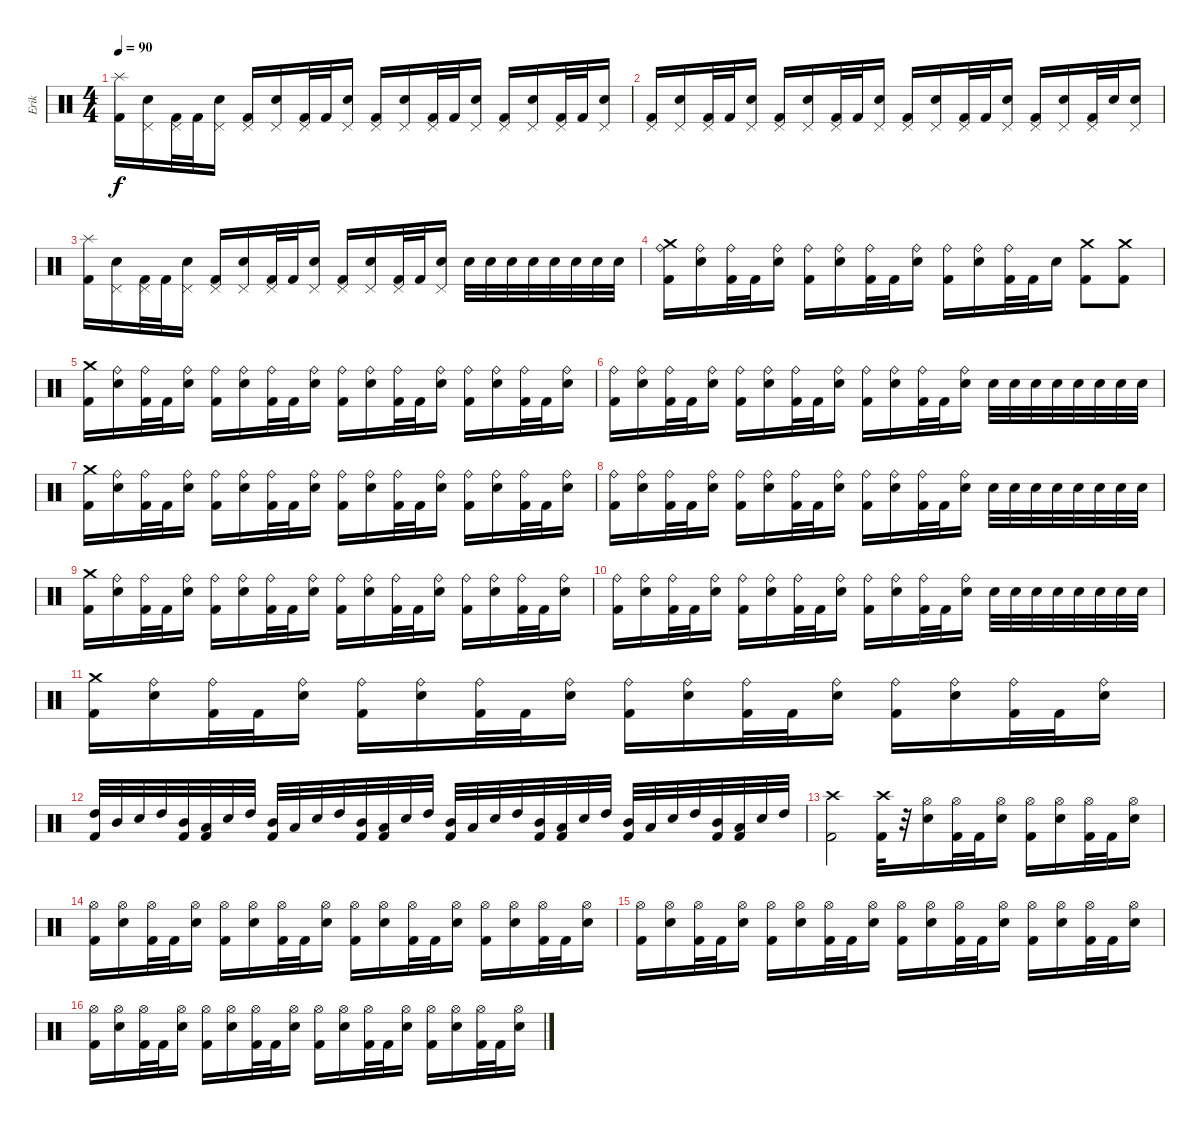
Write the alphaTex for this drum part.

\track ("Erik" "Erik") {instrument percussion}
\staff {score}
\articulation defaults
\ts (4 4)
\tempo 90
\clef neutral
\ks c
("Splash (hit)" "Kick (hit) 2").16{dy f} ("Pedal Hi-Hat (hit)" "Electric Snare (hit)").16 ("Pedal Hi-Hat (hit)" "Kick (hit) 2").32 "Kick (hit) 2".32 ("Pedal Hi-Hat (hit)" "Electric Snare (hit)").16 ("Pedal Hi-Hat (hit)" "Kick (hit) 2").16 ("Pedal Hi-Hat (hit)" "Electric Snare (hit)").16 ("Pedal Hi-Hat (hit)" "Kick (hit) 2").32 "Kick (hit) 2".32 ("Pedal Hi-Hat (hit)" "Electric Snare (hit)").16 ("Pedal Hi-Hat (hit)" "Kick (hit) 2").16 ("Pedal Hi-Hat (hit)" "Electric Snare (hit)").16 ("Pedal Hi-Hat (hit)" "Kick (hit) 2").32 "Kick (hit) 2".32 ("Pedal Hi-Hat (hit)" "Electric Snare (hit)").16 ("Pedal Hi-Hat (hit)" "Kick (hit) 2").16 ("Pedal Hi-Hat (hit)" "Electric Snare (hit)").16 ("Pedal Hi-Hat (hit)" "Kick (hit) 2").32 "Kick (hit) 2".32 ("Pedal Hi-Hat (hit)" "Electric Snare (hit)").16 |
("Pedal Hi-Hat (hit)" "Kick (hit) 2").16 ("Pedal Hi-Hat (hit)" "Electric Snare (hit)").16 ("Pedal Hi-Hat (hit)" "Kick (hit) 2").32 "Kick (hit) 2".32 ("Pedal Hi-Hat (hit)" "Electric Snare (hit)").16 ("Pedal Hi-Hat (hit)" "Kick (hit) 2").16 ("Pedal Hi-Hat (hit)" "Electric Snare (hit)").16 ("Pedal Hi-Hat (hit)" "Kick (hit) 2").32 "Kick (hit) 2".32 ("Pedal Hi-Hat (hit)" "Electric Snare (hit)").16 ("Pedal Hi-Hat (hit)" "Kick (hit) 2").16 ("Pedal Hi-Hat (hit)" "Electric Snare (hit)").16 ("Pedal Hi-Hat (hit)" "Kick (hit) 2").32 "Kick (hit) 2".32 ("Pedal Hi-Hat (hit)" "Electric Snare (hit)").16 ("Pedal Hi-Hat (hit)" "Kick (hit) 2").16 ("Pedal Hi-Hat (hit)" "Electric Snare (hit)").16 ("Pedal Hi-Hat (hit)" "Kick (hit) 2").32 "Electric Snare (hit)".32 ("Pedal Hi-Hat (hit)" "Electric Snare (hit)").16 |
("Splash (hit)" "Kick (hit) 2").16 ("Pedal Hi-Hat (hit)" "Electric Snare (hit)").16 ("Pedal Hi-Hat (hit)" "Kick (hit) 2").32 "Kick (hit) 2".32 ("Pedal Hi-Hat (hit)" "Electric Snare (hit)").16 ("Pedal Hi-Hat (hit)" "Kick (hit) 2").16 ("Pedal Hi-Hat (hit)" "Electric Snare (hit)").16 ("Pedal Hi-Hat (hit)" "Kick (hit) 2").32 "Kick (hit) 2".32 ("Pedal Hi-Hat (hit)" "Electric Snare (hit)").16 ("Pedal Hi-Hat (hit)" "Kick (hit) 2").16 ("Pedal Hi-Hat (hit)" "Electric Snare (hit)").16 ("Pedal Hi-Hat (hit)" "Kick (hit) 2").32 "Kick (hit) 2".32 ("Pedal Hi-Hat (hit)" "Electric Snare (hit)").16 "Electric Snare (hit)".32 "Electric Snare (hit)".32 "Electric Snare (hit)".32 "Electric Snare (hit)".32 "Electric Snare (hit)".32 "Electric Snare (hit)".32 "Electric Snare (hit)".32 "Electric Snare (hit)".32 |
("Crash medium (hit)" "Ride (bell)" "Kick (hit) 2").16 ("Ride (bell)" "Electric Snare (hit)").16 ("Ride (bell)" "Kick (hit) 2").32 "Kick (hit) 2".32 ("Ride (bell)" "Electric Snare (hit)").16 ("Ride (bell)" "Kick (hit) 2").16 ("Ride (bell)" "Electric Snare (hit)").16 ("Ride (bell)" "Kick (hit) 2").32 "Kick (hit) 2".32 ("Ride (bell)" "Electric Snare (hit)").16 ("Ride (bell)" "Kick (hit) 2").16 ("Ride (bell)" "Electric Snare (hit)").16 ("Ride (bell)" "Kick (hit) 2").32 "Kick (hit) 2".32 "Electric Snare (hit)".16 ("Crash medium (hit)" "Kick (hit) 2").8 ("Crash medium (hit)" "Kick (hit) 2").8 |
("Crash medium (hit)" "Kick (hit) 2").16 ("Ride (bell)" "Electric Snare (hit)").16 ("Ride (bell)" "Kick (hit) 2").32 "Kick (hit) 2".32 ("Ride (bell)" "Electric Snare (hit)").16 ("Ride (bell)" "Kick (hit) 2").16 ("Ride (bell)" "Electric Snare (hit)").16 ("Ride (bell)" "Kick (hit) 2").32 "Kick (hit) 2".32 ("Ride (bell)" "Electric Snare (hit)").16 ("Ride (bell)" "Kick (hit) 2").16 ("Ride (bell)" "Electric Snare (hit)").16 ("Ride (bell)" "Kick (hit) 2").32 "Kick (hit) 2".32 ("Ride (bell)" "Electric Snare (hit)").16 ("Ride (bell)" "Kick (hit) 2").16 ("Ride (bell)" "Electric Snare (hit)").16 ("Ride (bell)" "Kick (hit) 2").32 "Kick (hit) 2".32 ("Ride (bell)" "Electric Snare (hit)").16 |
("Ride (bell)" "Kick (hit) 2").16 ("Ride (bell)" "Electric Snare (hit)").16 ("Ride (bell)" "Kick (hit) 2").32 "Kick (hit) 2".32 ("Ride (bell)" "Electric Snare (hit)").16 ("Ride (bell)" "Kick (hit) 2").16 ("Ride (bell)" "Electric Snare (hit)").16 ("Ride (bell)" "Kick (hit) 2").32 "Kick (hit) 2".32 ("Ride (bell)" "Electric Snare (hit)").16 ("Ride (bell)" "Kick (hit) 2").16 ("Ride (bell)" "Electric Snare (hit)").16 ("Ride (bell)" "Kick (hit) 2").32 "Kick (hit) 2".32 ("Ride (bell)" "Electric Snare (hit)").16 "Electric Snare (hit)".32 "Electric Snare (hit)".32 "Electric Snare (hit)".32 "Electric Snare (hit)".32 "Electric Snare (hit)".32 "Electric Snare (hit)".32 "Electric Snare (hit)".32 "Electric Snare (hit)".32 |
("Crash medium (hit)" "Kick (hit) 2").16 ("Ride (bell)" "Electric Snare (hit)").16 ("Ride (bell)" "Kick (hit) 2").32 "Kick (hit) 2".32 ("Ride (bell)" "Electric Snare (hit)").16 ("Ride (bell)" "Kick (hit) 2").16 ("Ride (bell)" "Electric Snare (hit)").16 ("Ride (bell)" "Kick (hit) 2").32 "Kick (hit) 2".32 ("Ride (bell)" "Electric Snare (hit)").16 ("Ride (bell)" "Kick (hit) 2").16 ("Ride (bell)" "Electric Snare (hit)").16 ("Ride (bell)" "Kick (hit) 2").32 "Kick (hit) 2".32 ("Ride (bell)" "Electric Snare (hit)").16 ("Ride (bell)" "Kick (hit) 2").16 ("Ride (bell)" "Electric Snare (hit)").16 ("Ride (bell)" "Kick (hit) 2").32 "Kick (hit) 2".32 ("Ride (bell)" "Electric Snare (hit)").16 |
("Ride (bell)" "Kick (hit) 2").16 ("Ride (bell)" "Electric Snare (hit)").16 ("Ride (bell)" "Kick (hit) 2").32 "Kick (hit) 2".32 ("Ride (bell)" "Electric Snare (hit)").16 ("Ride (bell)" "Kick (hit) 2").16 ("Ride (bell)" "Electric Snare (hit)").16 ("Ride (bell)" "Kick (hit) 2").32 "Kick (hit) 2".32 ("Ride (bell)" "Electric Snare (hit)").16 ("Ride (bell)" "Kick (hit) 2").16 ("Ride (bell)" "Electric Snare (hit)").16 ("Ride (bell)" "Kick (hit) 2").32 "Kick (hit) 2".32 ("Ride (bell)" "Electric Snare (hit)").16 "Electric Snare (hit)".32 "Electric Snare (hit)".32 "Electric Snare (hit)".32 "Electric Snare (hit)".32 "Electric Snare (hit)".32 "Electric Snare (hit)".32 "Electric Snare (hit)".32 "Electric Snare (hit)".32 |
("Crash medium (hit)" "Kick (hit) 2").16 ("Ride (bell)" "Electric Snare (hit)").16 ("Ride (bell)" "Kick (hit) 2").32 "Kick (hit) 2".32 ("Ride (bell)" "Electric Snare (hit)").16 ("Ride (bell)" "Kick (hit) 2").16 ("Ride (bell)" "Electric Snare (hit)").16 ("Ride (bell)" "Kick (hit) 2").32 "Kick (hit) 2".32 ("Ride (bell)" "Electric Snare (hit)").16 ("Ride (bell)" "Kick (hit) 2").16 ("Ride (bell)" "Electric Snare (hit)").16 ("Ride (bell)" "Kick (hit) 2").32 "Kick (hit) 2".32 ("Ride (bell)" "Electric Snare (hit)").16 ("Ride (bell)" "Kick (hit) 2").16 ("Ride (bell)" "Electric Snare (hit)").16 ("Ride (bell)" "Kick (hit) 2").32 "Kick (hit) 2".32 ("Ride (bell)" "Electric Snare (hit)").16 |
("Ride (bell)" "Kick (hit) 2").16 ("Ride (bell)" "Electric Snare (hit)").16 ("Ride (bell)" "Kick (hit) 2").32 "Kick (hit) 2".32 ("Ride (bell)" "Electric Snare (hit)").16 ("Ride (bell)" "Kick (hit) 2").16 ("Ride (bell)" "Electric Snare (hit)").16 ("Ride (bell)" "Kick (hit) 2").32 "Kick (hit) 2".32 ("Ride (bell)" "Electric Snare (hit)").16 ("Ride (bell)" "Kick (hit) 2").16 ("Ride (bell)" "Electric Snare (hit)").16 ("Ride (bell)" "Kick (hit) 2").32 "Kick (hit) 2".32 ("Ride (bell)" "Electric Snare (hit)").16 "Electric Snare (hit)".32 "Electric Snare (hit)".32 "Electric Snare (hit)".32 "Electric Snare (hit)".32 "Electric Snare (hit)".32 "Electric Snare (hit)".32 "Electric Snare (hit)".32 "Electric Snare (hit)".32 |
("Crash medium (hit)" "Kick (hit) 2").16 ("Ride (bell)" "Electric Snare (hit)").16 ("Ride (bell)" "Kick (hit) 2").32 "Kick (hit) 2".32 ("Ride (bell)" "Electric Snare (hit)").16 ("Ride (bell)" "Kick (hit) 2").16 ("Ride (bell)" "Electric Snare (hit)").16 ("Ride (bell)" "Kick (hit) 2").32 "Kick (hit) 2".32 ("Ride (bell)" "Electric Snare (hit)").16 ("Ride (bell)" "Kick (hit) 2").16 ("Ride (bell)" "Electric Snare (hit)").16 ("Ride (bell)" "Kick (hit) 2").32 "Kick (hit) 2".32 ("Ride (bell)" "Electric Snare (hit)").16 ("Ride (bell)" "Kick (hit) 2").16 ("Ride (bell)" "Electric Snare (hit)").16 ("Ride (bell)" "Kick (hit) 2").32 "Kick (hit) 2".32 ("Ride (bell)" "Electric Snare (hit)").16 |
("High Tom (hit)" "Kick (hit) 2").32 "Mid Tom (hit)".32 "Electric Snare (hit)".32 "High Tom (hit)".32 ("Mid Tom (hit)" "Kick (hit) 2").32 ("Low Tom (hit)" "Kick (hit) 2").32 "Electric Snare (hit)".32 "High Tom (hit)".32 ("Mid Tom (hit)" "Kick (hit) 2").32 "Low Tom (hit)".32 "Electric Snare (hit)".32 "High Tom (hit)".32 ("Mid Tom (hit)" "Kick (hit) 2").32 ("Low Tom (hit)" "Kick (hit) 2").32 "Electric Snare (hit)".32 "High Tom (hit)".32 ("Mid Tom (hit)" "Kick (hit) 2").32 "Low Tom (hit)".32 "Electric Snare (hit)".32 "High Tom (hit)".32 ("Mid Tom (hit)" "Kick (hit) 2").32 ("Low Tom (hit)" "Kick (hit) 2").32 "Electric Snare (hit)".32 "High Tom (hit)".32 ("Mid Tom (hit)" "Kick (hit) 2").32 "Low Tom (hit)".32 "Electric Snare (hit)".32 "High Tom (hit)".32 ("Mid Tom (hit)" "Kick (hit) 2").32 ("Low Tom (hit)" "Kick (hit) 2").32 "Electric Snare (hit)".32 "High Tom (hit)".32 |
("Crash high (hit)" "Kick (hit) 2").2 ("Crash high (hit)" "Kick (hit) 2").32 r.32 ("Hi-Hat (open)" "Electric Snare (hit)").16 ("Hi-Hat (open)" "Kick (hit) 2").32 "Kick (hit) 2".32 ("Hi-Hat (open)" "Electric Snare (hit)").16 ("Hi-Hat (open)" "Kick (hit) 2").16 ("Hi-Hat (open)" "Electric Snare (hit)").16 ("Hi-Hat (open)" "Kick (hit) 2").32 "Kick (hit) 2".32 ("Hi-Hat (open)" "Electric Snare (hit)").16 |
("Hi-Hat (open)" "Kick (hit) 2").16 ("Hi-Hat (open)" "Electric Snare (hit)").16 ("Hi-Hat (open)" "Kick (hit) 2").32 "Kick (hit) 2".32 ("Hi-Hat (open)" "Electric Snare (hit)").16 ("Hi-Hat (open)" "Kick (hit) 2").16 ("Hi-Hat (open)" "Electric Snare (hit)").16 ("Hi-Hat (open)" "Kick (hit) 2").32 "Kick (hit) 2".32 ("Hi-Hat (open)" "Electric Snare (hit)").16 ("Hi-Hat (open)" "Kick (hit) 2").16 ("Hi-Hat (open)" "Electric Snare (hit)").16 ("Hi-Hat (open)" "Kick (hit) 2").32 "Kick (hit) 2".32 ("Hi-Hat (open)" "Electric Snare (hit)").16 ("Hi-Hat (open)" "Kick (hit) 2").16 ("Hi-Hat (open)" "Electric Snare (hit)").16 ("Hi-Hat (open)" "Kick (hit) 2").32 "Kick (hit) 2".32 ("Hi-Hat (open)" "Electric Snare (hit)").16 |
("Hi-Hat (open)" "Kick (hit) 2").16 ("Hi-Hat (open)" "Electric Snare (hit)").16 ("Hi-Hat (open)" "Kick (hit) 2").32 "Kick (hit) 2".32 ("Hi-Hat (open)" "Electric Snare (hit)").16 ("Hi-Hat (open)" "Kick (hit) 2").16 ("Hi-Hat (open)" "Electric Snare (hit)").16 ("Hi-Hat (open)" "Kick (hit) 2").32 "Kick (hit) 2".32 ("Hi-Hat (open)" "Electric Snare (hit)").16 ("Hi-Hat (open)" "Kick (hit) 2").16 ("Hi-Hat (open)" "Electric Snare (hit)").16 ("Hi-Hat (open)" "Kick (hit) 2").32 "Kick (hit) 2".32 ("Hi-Hat (open)" "Electric Snare (hit)").16 ("Hi-Hat (open)" "Kick (hit) 2").16 ("Hi-Hat (open)" "Electric Snare (hit)").16 ("Hi-Hat (open)" "Kick (hit) 2").32 "Kick (hit) 2".32 ("Hi-Hat (open)" "Electric Snare (hit)").16 |
("Hi-Hat (open)" "Kick (hit) 2").16 ("Hi-Hat (open)" "Electric Snare (hit)").16 ("Hi-Hat (open)" "Kick (hit) 2").32 "Kick (hit) 2".32 ("Hi-Hat (open)" "Electric Snare (hit)").16 ("Hi-Hat (open)" "Kick (hit) 2").16 ("Hi-Hat (open)" "Electric Snare (hit)").16 ("Hi-Hat (open)" "Kick (hit) 2").32 "Kick (hit) 2".32 ("Hi-Hat (open)" "Electric Snare (hit)").16 ("Hi-Hat (open)" "Kick (hit) 2").16 ("Hi-Hat (open)" "Electric Snare (hit)").16 ("Hi-Hat (open)" "Kick (hit) 2").32 "Kick (hit) 2".32 ("Hi-Hat (open)" "Electric Snare (hit)").16 ("Hi-Hat (open)" "Kick (hit) 2").16 ("Hi-Hat (open)" "Electric Snare (hit)").16 ("Hi-Hat (open)" "Kick (hit) 2").32 "Kick (hit) 2".32 ("Hi-Hat (open)" "Electric Snare (hit)").16
